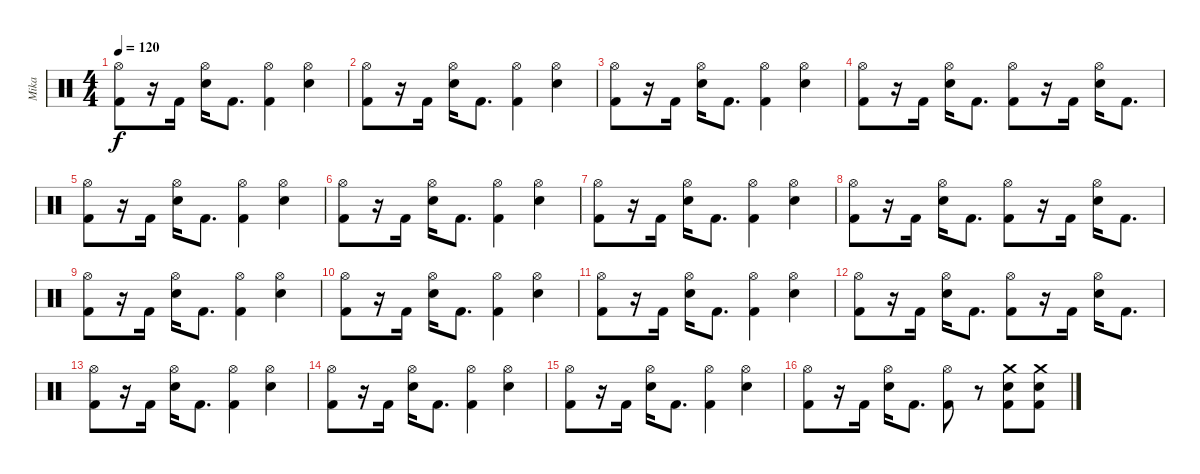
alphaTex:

\track ("Mika" "Mika") {instrument percussion}
\staff {score}
\articulation defaults
\ts (4 4)
\tempo 120
\clef neutral
\ks c
("Hi-Hat (open)" "Kick (hit) 2").8{dy f} r.16 "Kick (hit) 2".16 ("Hi-Hat (open)" "Electric Snare (hit)").16 "Kick (hit) 2".8{d} ("Hi-Hat (open)" "Kick (hit) 2").4 ("Hi-Hat (open)" "Electric Snare (hit)").4 |
("Hi-Hat (open)" "Kick (hit) 2").8 r.16 "Kick (hit) 2".16 ("Hi-Hat (open)" "Electric Snare (hit)").16 "Kick (hit) 2".8{d} ("Hi-Hat (open)" "Kick (hit) 2").4 ("Hi-Hat (open)" "Electric Snare (hit)").4 |
("Hi-Hat (open)" "Kick (hit) 2").8 r.16 "Kick (hit) 2".16 ("Hi-Hat (open)" "Electric Snare (hit)").16 "Kick (hit) 2".8{d} ("Hi-Hat (open)" "Kick (hit) 2").4 ("Hi-Hat (open)" "Electric Snare (hit)").4 |
("Hi-Hat (open)" "Kick (hit) 2").8 r.16 "Kick (hit) 2".16 ("Hi-Hat (open)" "Electric Snare (hit)").16 "Kick (hit) 2".8{d} ("Hi-Hat (open)" "Kick (hit) 2").8 r.16 "Kick (hit) 2".16 ("Hi-Hat (open)" "Electric Snare (hit)").16 "Kick (hit) 2".8{d} |
("Hi-Hat (open)" "Kick (hit) 2").8 r.16 "Kick (hit) 2".16 ("Hi-Hat (open)" "Electric Snare (hit)").16 "Kick (hit) 2".8{d} ("Hi-Hat (open)" "Kick (hit) 2").4 ("Hi-Hat (open)" "Electric Snare (hit)").4 |
("Hi-Hat (open)" "Kick (hit) 2").8 r.16 "Kick (hit) 2".16 ("Hi-Hat (open)" "Electric Snare (hit)").16 "Kick (hit) 2".8{d} ("Hi-Hat (open)" "Kick (hit) 2").4 ("Hi-Hat (open)" "Electric Snare (hit)").4 |
("Hi-Hat (open)" "Kick (hit) 2").8 r.16 "Kick (hit) 2".16 ("Hi-Hat (open)" "Electric Snare (hit)").16 "Kick (hit) 2".8{d} ("Hi-Hat (open)" "Kick (hit) 2").4 ("Hi-Hat (open)" "Electric Snare (hit)").4 |
("Hi-Hat (open)" "Kick (hit) 2").8 r.16 "Kick (hit) 2".16 ("Hi-Hat (open)" "Electric Snare (hit)").16 "Kick (hit) 2".8{d} ("Hi-Hat (open)" "Kick (hit) 2").8 r.16 "Kick (hit) 2".16 ("Hi-Hat (open)" "Electric Snare (hit)").16 "Kick (hit) 2".8{d} |
("Hi-Hat (open)" "Kick (hit) 2").8 r.16 "Kick (hit) 2".16 ("Hi-Hat (open)" "Electric Snare (hit)").16 "Kick (hit) 2".8{d} ("Hi-Hat (open)" "Kick (hit) 2").4 ("Hi-Hat (open)" "Electric Snare (hit)").4 |
("Hi-Hat (open)" "Kick (hit) 2").8 r.16 "Kick (hit) 2".16 ("Hi-Hat (open)" "Electric Snare (hit)").16 "Kick (hit) 2".8{d} ("Hi-Hat (open)" "Kick (hit) 2").4 ("Hi-Hat (open)" "Electric Snare (hit)").4 |
("Hi-Hat (open)" "Kick (hit) 2").8 r.16 "Kick (hit) 2".16 ("Hi-Hat (open)" "Electric Snare (hit)").16 "Kick (hit) 2".8{d} ("Hi-Hat (open)" "Kick (hit) 2").4 ("Hi-Hat (open)" "Electric Snare (hit)").4 |
("Hi-Hat (open)" "Kick (hit) 2").8 r.16 "Kick (hit) 2".16 ("Hi-Hat (open)" "Electric Snare (hit)").16 "Kick (hit) 2".8{d} ("Hi-Hat (open)" "Kick (hit) 2").8 r.16 "Kick (hit) 2".16 ("Hi-Hat (open)" "Electric Snare (hit)").16 "Kick (hit) 2".8{d} |
("Hi-Hat (open)" "Kick (hit) 2").8 r.16 "Kick (hit) 2".16 ("Hi-Hat (open)" "Electric Snare (hit)").16 "Kick (hit) 2".8{d} ("Hi-Hat (open)" "Kick (hit) 2").4 ("Hi-Hat (open)" "Electric Snare (hit)").4 |
("Hi-Hat (open)" "Kick (hit) 2").8 r.16 "Kick (hit) 2".16 ("Hi-Hat (open)" "Electric Snare (hit)").16 "Kick (hit) 2".8{d} ("Hi-Hat (open)" "Kick (hit) 2").4 ("Hi-Hat (open)" "Electric Snare (hit)").4 |
("Hi-Hat (open)" "Kick (hit) 2").8 r.16 "Kick (hit) 2".16 ("Hi-Hat (open)" "Electric Snare (hit)").16 "Kick (hit) 2".8{d} ("Hi-Hat (open)" "Kick (hit) 2").4 ("Hi-Hat (open)" "Electric Snare (hit)").4 |
("Hi-Hat (open)" "Kick (hit) 2").8 r.16 "Kick (hit) 2".16 ("Hi-Hat (open)" "Electric Snare (hit)").16 "Kick (hit) 2".8{d} ("Hi-Hat (open)" "Kick (hit) 2").8 r.8 ("Crash medium (hit)" "Electric Snare (hit)" "Kick (hit) 2").8 ("Crash medium (hit)" "Electric Snare (hit)" "Kick (hit) 2").8
